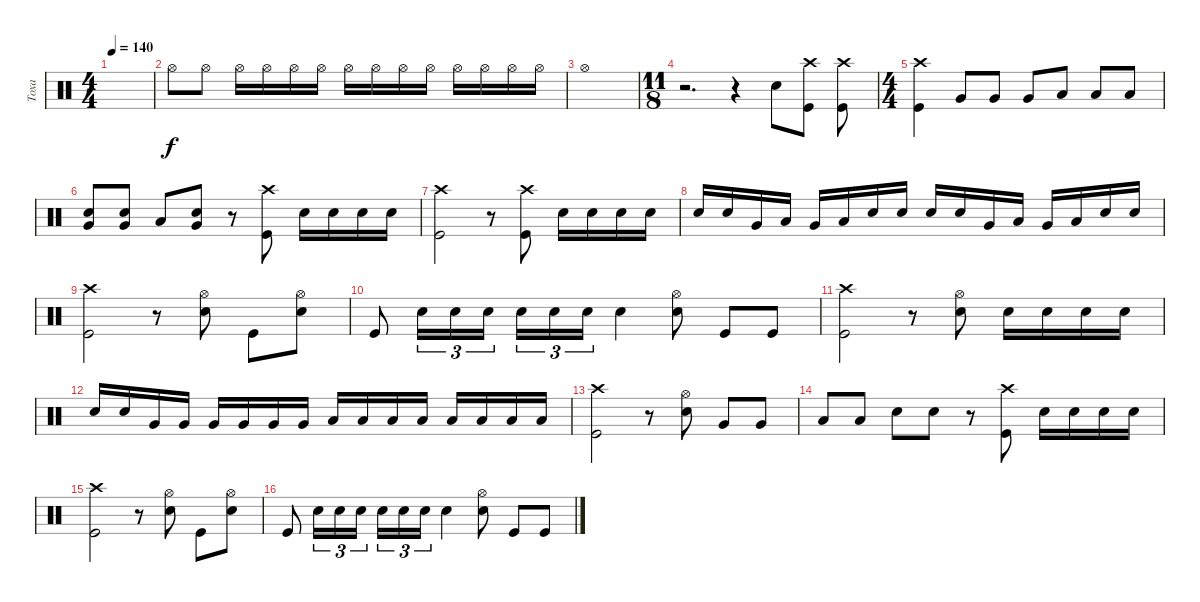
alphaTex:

\track ("Тоха" "Тоха") {instrument percussion}
\staff {score}
\articulation defaults
\ts (4 4)
\tempo 140
\clef neutral
\ks c
|
"Hi-Hat (open)".8 "Hi-Hat (open)".8 "Hi-Hat (open)".16 "Hi-Hat (open)".16 "Hi-Hat (open)".16 "Hi-Hat (open)".16 "Hi-Hat (open)".16 "Hi-Hat (open)".16 "Hi-Hat (open)".16 "Hi-Hat (open)".16 "Hi-Hat (open)".16 "Hi-Hat (open)".16 "Hi-Hat (open)".16 "Hi-Hat (open)".16 |
"Hi-Hat (open)".1 |
\ts (11 8)
r.2{d} r.4 "Snare (hit) 2".8 ("Kick (hit)" "Crash high (hit)").8 ("Kick (hit)" "Crash high (hit)").8 |
\ts (4 4)
("Kick (hit)" "Crash high (hit)").4 "Very Low Tom (hit)".8 "Very Low Tom (hit)".8 "Very Low Tom (hit)".8 "Low Floor Tom (hit)".8 "Low Floor Tom (hit)".8 "Low Floor Tom (hit)".8 |
("Very Low Tom (hit)" "Snare (hit) 2").8 ("Very Low Tom (hit)" "Snare (hit) 2").8 "Low Floor Tom (hit)".8 ("Very Low Tom (hit)" "Snare (hit) 2").8 r.8 ("Kick (hit)" "Crash high (hit)").8 "Snare (hit) 2".16 "Snare (hit) 2".16 "Snare (hit) 2".16 "Snare (hit) 2".16 |
("Kick (hit)" "Crash high (hit)").2 r.8 ("Kick (hit)" "Crash high (hit)").8 "Snare (hit) 2".16 "Snare (hit) 2".16 "Snare (hit) 2".16 "Snare (hit) 2".16 |
"Snare (hit) 2".16 "Snare (hit) 2".16 "Very Low Tom (hit)".16 "Low Floor Tom (hit)".16 "Very Low Tom (hit)".16 "Low Floor Tom (hit)".16 "Snare (hit) 2".16 "Snare (hit) 2".16 "Snare (hit) 2".16 "Snare (hit) 2".16 "Very Low Tom (hit)".16 "Low Floor Tom (hit)".16 "Very Low Tom (hit)".16 "Low Floor Tom (hit)".16 "Snare (hit) 2".16 "Snare (hit) 2".16 |
("Kick (hit)" "Crash high (hit)").2 r.8 ("Snare (hit) 2" "Hi-Hat (open)").8 "Kick (hit)".8 ("Snare (hit) 2" "Hi-Hat (open)").8 |
"Kick (hit)".8 "Snare (hit) 2".16{tu (3 2)} "Snare (hit) 2".16{tu (3 2)} "Snare (hit) 2".16{tu (3 2)} "Snare (hit) 2".16{tu (3 2)} "Snare (hit) 2".16{tu (3 2)} "Snare (hit) 2".16{tu (3 2)} "Snare (hit) 2".4 ("Snare (hit) 2" "Hi-Hat (open)").8 "Kick (hit)".8 "Kick (hit)".8 |
("Kick (hit)" "Crash high (hit)").2 r.8 ("Snare (hit) 2" "Hi-Hat (open)").8 "Snare (hit) 2".16 "Snare (hit) 2".16 "Snare (hit) 2".16 "Snare (hit) 2".16 |
"Snare (hit) 2".16 "Snare (hit) 2".16 "Very Low Tom (hit)".16 "Very Low Tom (hit)".16 "Very Low Tom (hit)".16 "Very Low Tom (hit)".16 "Very Low Tom (hit)".16 "Very Low Tom (hit)".16 "Low Floor Tom (hit)".16 "Low Floor Tom (hit)".16 "Low Floor Tom (hit)".16 "Low Floor Tom (hit)".16 "Low Floor Tom (hit)".16 "Low Floor Tom (hit)".16 "Low Floor Tom (hit)".16 "Low Floor Tom (hit)".16 |
("Kick (hit)" "Crash high (hit)").2 r.8 ("Snare (hit) 2" "Hi-Hat (open)").8 "Very Low Tom (hit)".8 "Very Low Tom (hit)".8 |
"Low Floor Tom (hit)".8 "Low Floor Tom (hit)".8 "Snare (hit) 2".8 "Snare (hit) 2".8 r.8 ("Kick (hit)" "Crash high (hit)").8 "Snare (hit) 2".16 "Snare (hit) 2".16 "Snare (hit) 2".16 "Snare (hit) 2".16 |
("Kick (hit)" "Crash high (hit)").2 r.8 ("Snare (hit) 2" "Hi-Hat (open)").8 "Kick (hit)".8 ("Snare (hit) 2" "Hi-Hat (open)").8 |
"Kick (hit)".8 "Snare (hit) 2".16{tu (3 2)} "Snare (hit) 2".16{tu (3 2)} "Snare (hit) 2".16{tu (3 2)} "Snare (hit) 2".16{tu (3 2)} "Snare (hit) 2".16{tu (3 2)} "Snare (hit) 2".16{tu (3 2)} "Snare (hit) 2".4 ("Snare (hit) 2" "Hi-Hat (open)").8 "Kick (hit)".8 "Kick (hit)".8
